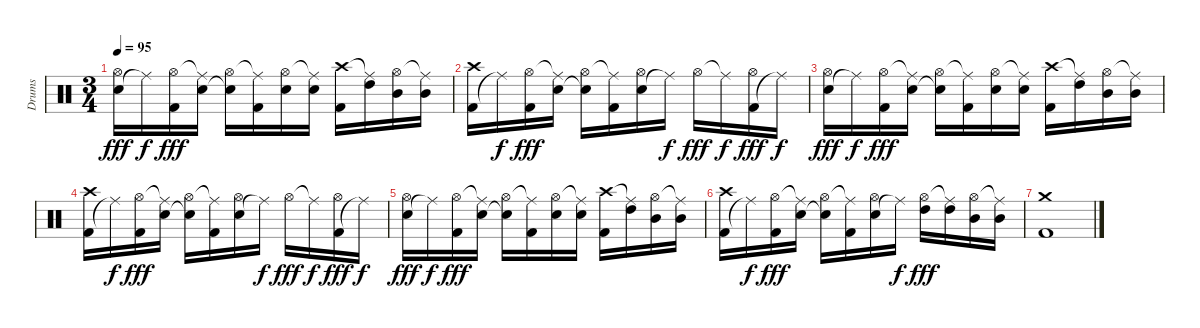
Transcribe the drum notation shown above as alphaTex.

\track ("Drums" "Drums") {instrument percussion}
\staff {score}
\articulation defaults
\ts (3 4)
\tempo 95
\clef neutral
\ks c
("Snare (hit) 2" "Hi-Hat (open)").16{dy fff} "Ride (middle)"{t}.16{dy f} ("Kick (hit) 2" "Hi-Hat (open)").16{dy fff} ("Snare (hit) 2" "Ride (middle)"{t}).16 ("Snare (hit) 2"{t} "Hi-Hat (open)").16 ("Kick (hit) 2" "Ride (middle)"{t}).16 ("Snare (hit) 2" "Hi-Hat (open)").16 ("Snare (hit) 2" "Ride (middle)"{t}).16 ("Kick (hit) 2" "Crash high (hit)").16 ("High Tom (hit)" "Ride (middle)"{t}).16 ("Mid Tom (hit)" "Hi-Hat (open)").16 ("Mid Tom (hit)" "Ride (middle)"{t}).16 |
("Kick (hit) 2" "Crash high (hit)").16 "Ride (middle)"{t}.16{dy f} ("Kick (hit) 2" "Hi-Hat (open)").16{dy fff} ("Snare (hit) 2" "Ride (middle)"{t}).16 ("Snare (hit) 2"{t} "Hi-Hat (open)").16 ("Kick (hit) 2" "Ride (middle)"{t}).16 ("Snare (hit) 2" "Hi-Hat (open)").16 "Ride (middle)"{t}.16{dy f} "Hi-Hat (open)".16{dy fff} "Ride (middle)"{t}.16{dy f} ("Kick (hit) 2" "Hi-Hat (open)").16{dy fff} "Ride (middle)"{t}.16{dy f} |
("Snare (hit) 2" "Hi-Hat (open)").16{dy fff} "Ride (middle)"{t}.16{dy f} ("Kick (hit) 2" "Hi-Hat (open)").16{dy fff} ("Snare (hit) 2" "Ride (middle)"{t}).16 ("Snare (hit) 2"{t} "Hi-Hat (open)").16 ("Kick (hit) 2" "Ride (middle)"{t}).16 ("Snare (hit) 2" "Hi-Hat (open)").16 ("Snare (hit) 2" "Ride (middle)"{t}).16 ("Kick (hit) 2" "Crash high (hit)").16 ("High Tom (hit)" "Ride (middle)"{t}).16 ("Mid Tom (hit)" "Hi-Hat (open)").16 ("Mid Tom (hit)" "Ride (middle)"{t}).16 |
("Kick (hit) 2" "Crash high (hit)").16 "Ride (middle)"{t}.16{dy f} ("Kick (hit) 2" "Hi-Hat (open)").16{dy fff} ("Snare (hit) 2" "Ride (middle)"{t}).16 ("Snare (hit) 2"{t} "Hi-Hat (open)").16 ("Kick (hit) 2" "Ride (middle)"{t}).16 ("Snare (hit) 2" "Hi-Hat (open)").16 "Ride (middle)"{t}.16{dy f} "Hi-Hat (open)".16{dy fff} "Ride (middle)"{t}.16{dy f} ("Kick (hit) 2" "Hi-Hat (open)").16{dy fff} "Ride (middle)"{t}.16{dy f} |
("Snare (hit) 2" "Hi-Hat (open)").16{dy fff} "Ride (middle)"{t}.16{dy f} ("Kick (hit) 2" "Hi-Hat (open)").16{dy fff} ("Snare (hit) 2" "Ride (middle)"{t}).16 ("Snare (hit) 2"{t} "Hi-Hat (open)").16 ("Kick (hit) 2" "Ride (middle)"{t}).16 ("Snare (hit) 2" "Hi-Hat (open)").16 ("Snare (hit) 2" "Ride (middle)"{t}).16 ("Kick (hit) 2" "Crash high (hit)").16 ("High Tom (hit)" "Ride (middle)"{t}).16 ("Mid Tom (hit)" "Hi-Hat (open)").16 ("Mid Tom (hit)" "Ride (middle)"{t}).16 |
("Kick (hit) 2" "Crash high (hit)").16 "Ride (middle)"{t}.16{dy f} ("Kick (hit) 2" "Hi-Hat (open)").16{dy fff} ("Snare (hit) 2" "Ride (middle)"{t}).16 ("Snare (hit) 2"{t} "Hi-Hat (open)").16 ("Kick (hit) 2" "Ride (middle)"{t}).16 ("Snare (hit) 2" "Hi-Hat (open)").16 "Ride (middle)"{t}.16{dy f} ("High Tom (hit)" "Hi-Hat (open)").16{dy fff} ("High Tom (hit)" "Ride (middle)"{t}).16 ("Mid Tom (hit)" "Hi-Hat (open)").16 ("Mid Tom (hit)" "Ride (middle)"{t}).16 |
("Crash medium (hit)" "Kick (hit) 2").1
